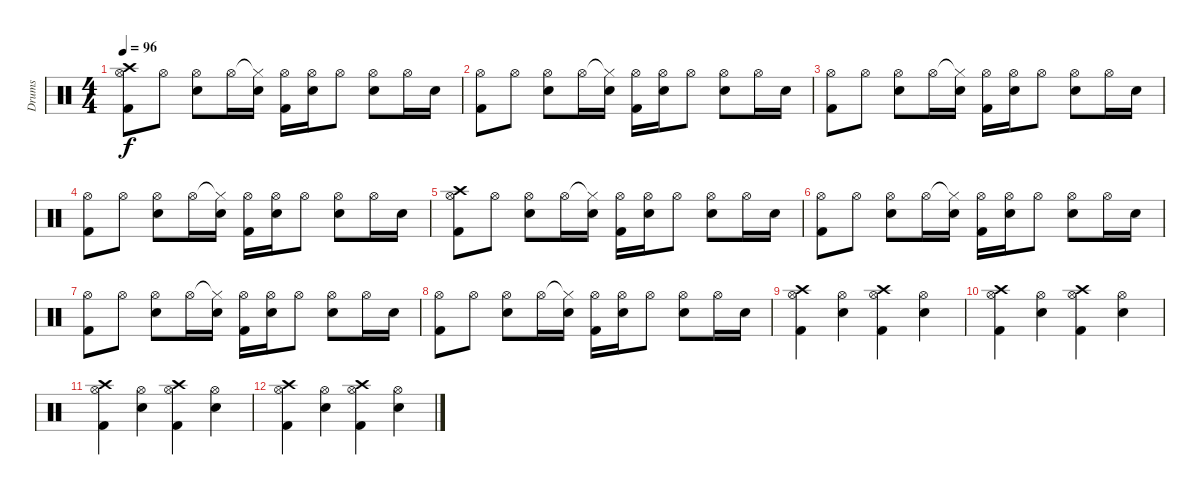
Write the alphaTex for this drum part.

\track ("Drums" "Drums") {instrument percussion}
\staff {score}
\articulation defaults
\ts (4 4)
\tempo 96
\clef neutral
\ks c
("Crash high (hit)" "Hi-Hat (open)" "Kick (hit) 2").8{dy f} "Hi-Hat (open)".8 ("Hi-Hat (open)" "Snare (hit) 2").8 "Hi-Hat (open)".16 ("Hi-Hat (closed)"{t} "Snare (hit) 2").16 ("Hi-Hat (open)" "Kick (hit) 2").16 ("Hi-Hat (open)" "Snare (hit) 2").16 "Hi-Hat (open)".8 ("Hi-Hat (open)" "Snare (hit) 2").8 "Hi-Hat (open)".16 "Snare (hit) 2".16 |
("Hi-Hat (open)" "Kick (hit) 2").8 "Hi-Hat (open)".8 ("Hi-Hat (open)" "Snare (hit) 2").8 "Hi-Hat (open)".16 ("Hi-Hat (closed)"{t} "Snare (hit) 2").16 ("Hi-Hat (open)" "Kick (hit) 2").16 ("Hi-Hat (open)" "Snare (hit) 2").16 "Hi-Hat (open)".8 ("Hi-Hat (open)" "Snare (hit) 2").8 "Hi-Hat (open)".16 "Snare (hit) 2".16 |
("Hi-Hat (open)" "Kick (hit) 2").8 "Hi-Hat (open)".8 ("Hi-Hat (open)" "Snare (hit) 2").8 "Hi-Hat (open)".16 ("Hi-Hat (closed)"{t} "Snare (hit) 2").16 ("Hi-Hat (open)" "Kick (hit) 2").16 ("Hi-Hat (open)" "Snare (hit) 2").16 "Hi-Hat (open)".8 ("Hi-Hat (open)" "Snare (hit) 2").8 "Hi-Hat (open)".16 "Snare (hit) 2".16 |
("Hi-Hat (open)" "Kick (hit) 2").8 "Hi-Hat (open)".8 ("Hi-Hat (open)" "Snare (hit) 2").8 "Hi-Hat (open)".16 ("Hi-Hat (closed)"{t} "Snare (hit) 2").16 ("Hi-Hat (open)" "Kick (hit) 2").16 ("Hi-Hat (open)" "Snare (hit) 2").16 "Hi-Hat (open)".8 ("Hi-Hat (open)" "Snare (hit) 2").8 "Hi-Hat (open)".16 "Snare (hit) 2".16 |
("Crash high (hit)" "Hi-Hat (open)" "Kick (hit) 2").8 "Hi-Hat (open)".8 ("Hi-Hat (open)" "Snare (hit) 2").8 "Hi-Hat (open)".16 ("Hi-Hat (closed)"{t} "Snare (hit) 2").16 ("Hi-Hat (open)" "Kick (hit) 2").16 ("Hi-Hat (open)" "Snare (hit) 2").16 "Hi-Hat (open)".8 ("Hi-Hat (open)" "Snare (hit) 2").8 "Hi-Hat (open)".16 "Snare (hit) 2".16 |
("Hi-Hat (open)" "Kick (hit) 2").8 "Hi-Hat (open)".8 ("Hi-Hat (open)" "Snare (hit) 2").8 "Hi-Hat (open)".16 ("Hi-Hat (closed)"{t} "Snare (hit) 2").16 ("Hi-Hat (open)" "Kick (hit) 2").16 ("Hi-Hat (open)" "Snare (hit) 2").16 "Hi-Hat (open)".8 ("Hi-Hat (open)" "Snare (hit) 2").8 "Hi-Hat (open)".16 "Snare (hit) 2".16 |
("Hi-Hat (open)" "Kick (hit) 2").8 "Hi-Hat (open)".8 ("Hi-Hat (open)" "Snare (hit) 2").8 "Hi-Hat (open)".16 ("Hi-Hat (closed)"{t} "Snare (hit) 2").16 ("Hi-Hat (open)" "Kick (hit) 2").16 ("Hi-Hat (open)" "Snare (hit) 2").16 "Hi-Hat (open)".8 ("Hi-Hat (open)" "Snare (hit) 2").8 "Hi-Hat (open)".16 "Snare (hit) 2".16 |
("Hi-Hat (open)" "Kick (hit) 2").8 "Hi-Hat (open)".8 ("Hi-Hat (open)" "Snare (hit) 2").8 "Hi-Hat (open)".16 ("Hi-Hat (closed)"{t} "Snare (hit) 2").16 ("Hi-Hat (open)" "Kick (hit) 2").16 ("Hi-Hat (open)" "Snare (hit) 2").16 "Hi-Hat (open)".8 ("Hi-Hat (open)" "Snare (hit) 2").8 "Hi-Hat (open)".16 "Snare (hit) 2".16 |
("Crash high (hit)" "Hi-Hat (open)" "Kick (hit) 2").4 ("Hi-Hat (open)" "Snare (hit) 2").4{volume 15} ("Crash high (hit)" "Hi-Hat (open)" "Kick (hit) 2").4{volume 14} ("Hi-Hat (open)" "Snare (hit) 2").4{volume 13} |
("Crash high (hit)" "Hi-Hat (open)" "Kick (hit) 2").4{volume 12} ("Hi-Hat (open)" "Snare (hit) 2").4{volume 11} ("Crash high (hit)" "Hi-Hat (open)" "Kick (hit) 2").4{volume 10} ("Hi-Hat (open)" "Snare (hit) 2").4{volume 9} |
("Crash high (hit)" "Hi-Hat (open)" "Kick (hit) 2").4{volume 8} ("Hi-Hat (open)" "Snare (hit) 2").4{volume 7} ("Crash high (hit)" "Hi-Hat (open)" "Kick (hit) 2").4{volume 6} ("Hi-Hat (open)" "Snare (hit) 2").4{volume 5} |
("Crash high (hit)" "Hi-Hat (open)" "Kick (hit) 2").4{volume 4} ("Hi-Hat (open)" "Snare (hit) 2").4{volume 3} ("Crash high (hit)" "Hi-Hat (open)" "Kick (hit) 2").4{volume 2} ("Hi-Hat (open)" "Snare (hit) 2").4{volume 1}
